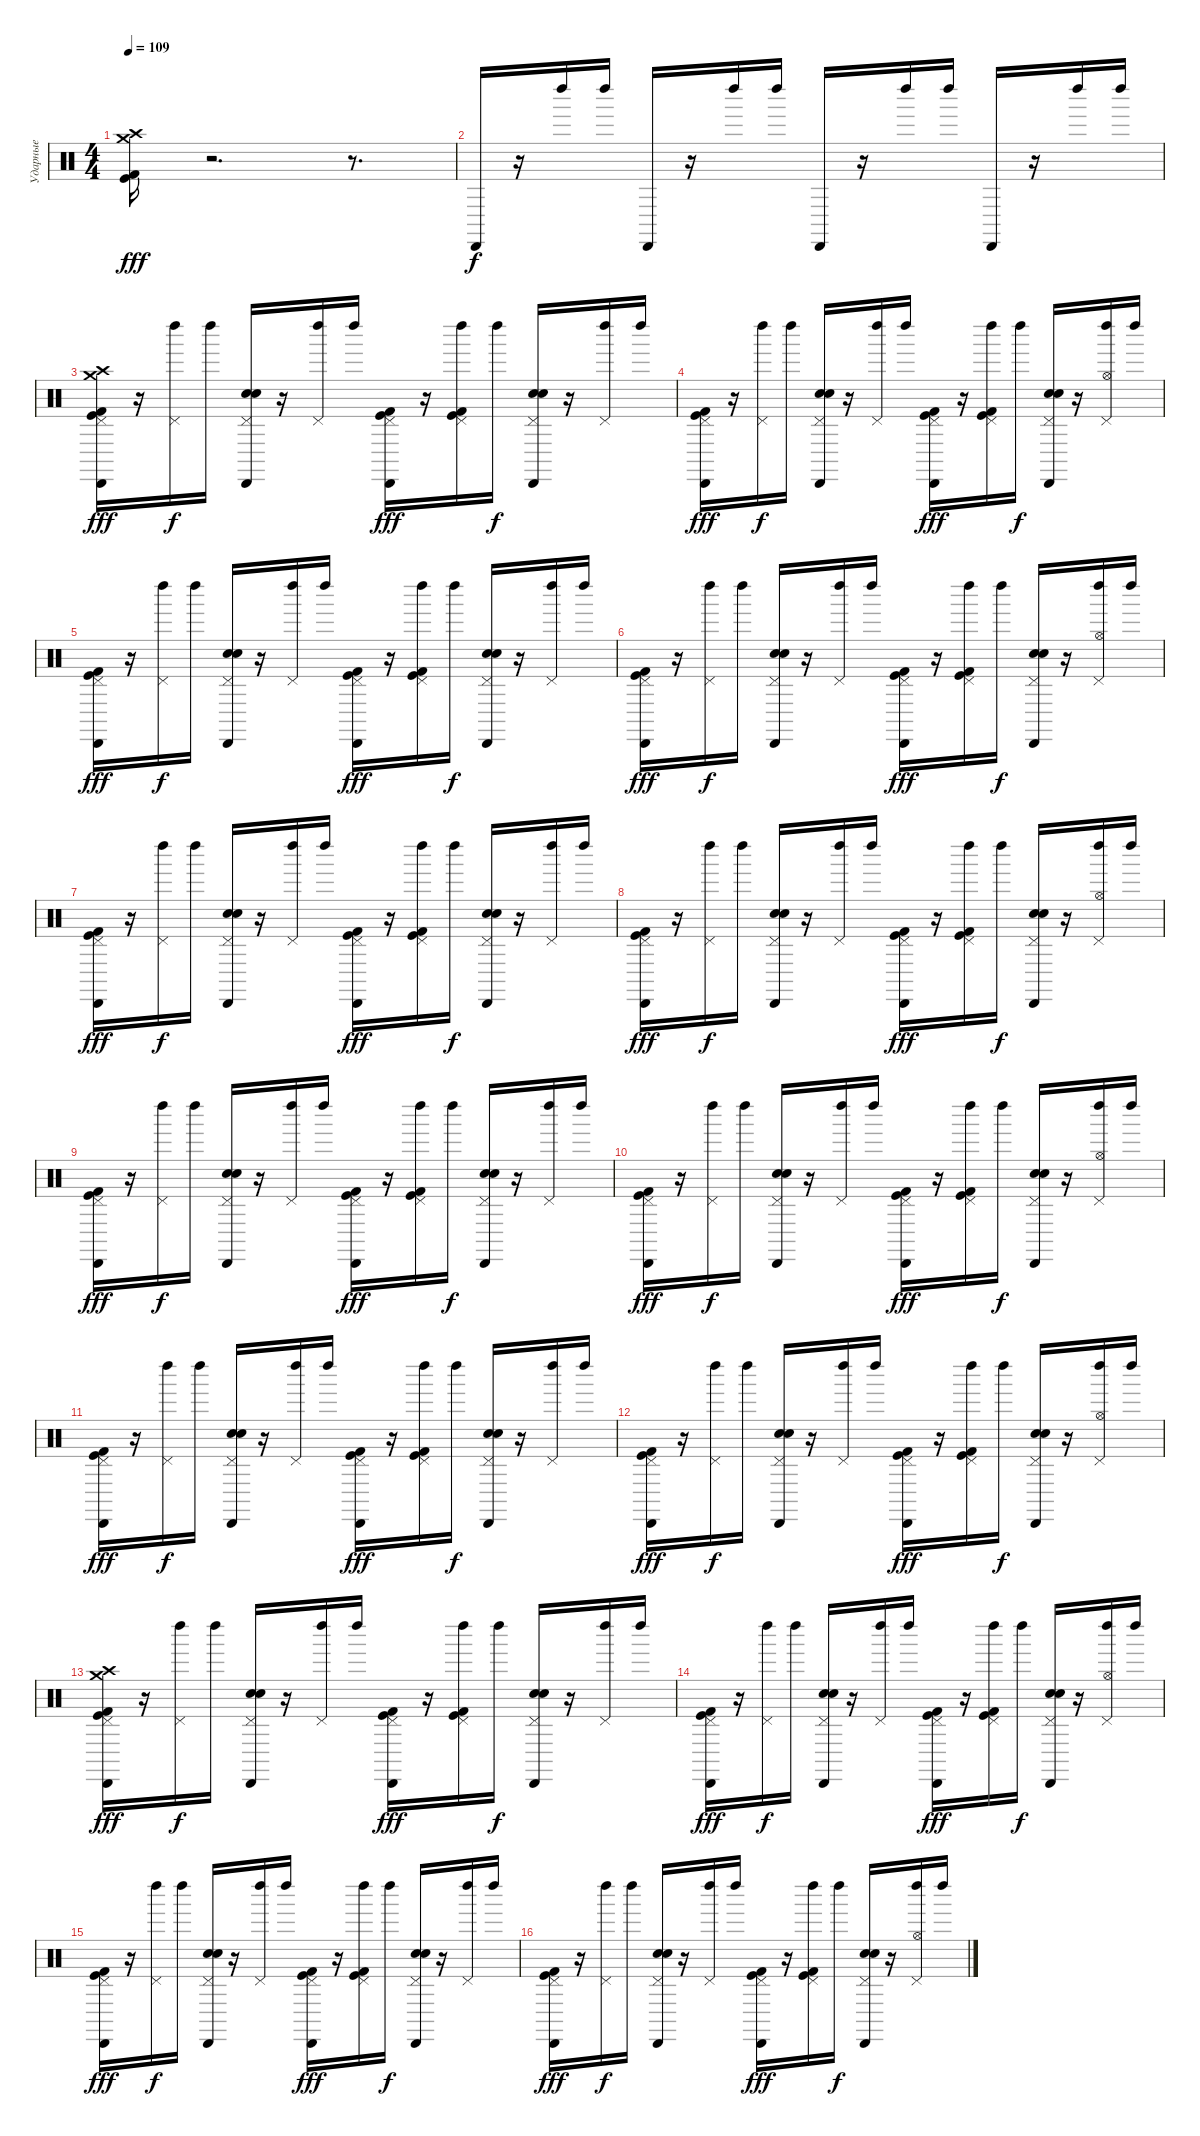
\track ("Ударные" "Ударные") {instrument percussion}
\staff {score}
\articulation defaults
\ts (4 4)
\tempo 109
\clef neutral
\ks c
("Kick (hit) 2" "Kick (hit)" "Crash medium (hit)" "Crash high (hit)").16{dy fff} r.2{d} r.8{d} |
"Cabasa (hit)".16{dy f} r.16 "Left Maraca (hit)".16 "Left Maraca (hit)".16 "Cabasa (hit)".16 r.16 "Left Maraca (hit)".16 "Left Maraca (hit)".16 "Cabasa (hit)".16 r.16 "Left Maraca (hit)".16 "Left Maraca (hit)".16 "Cabasa (hit)".16 r.16 "Left Maraca (hit)".16 "Left Maraca (hit)".16 |
("Cabasa (hit)" "Kick (hit) 2" "Kick (hit)" "Pedal Hi-Hat (hit)" "Crash high (hit)" "Crash medium (hit)").16{dy fff} r.16 ("Left Maraca (hit)" "Pedal Hi-Hat (hit)").16{dy f} "Left Maraca (hit)".16 ("Cabasa (hit)" "Snare (hit) 2" "Electric Snare (hit)" "Pedal Hi-Hat (hit)").16 r.16 ("Left Maraca (hit)" "Pedal Hi-Hat (hit)").16 "Left Maraca (hit)".16 ("Cabasa (hit)" "Kick (hit)" "Kick (hit) 2" "Pedal Hi-Hat (hit)").16{dy fff} r.16 ("Left Maraca (hit)" "Kick (hit)" "Kick (hit) 2" "Pedal Hi-Hat (hit)").16 "Left Maraca (hit)".16{dy f} ("Cabasa (hit)" "Snare (hit) 2" "Electric Snare (hit)" "Pedal Hi-Hat (hit)").16 r.16 ("Left Maraca (hit)" "Pedal Hi-Hat (hit)").16 "Left Maraca (hit)".16 |
("Cabasa (hit)" "Kick (hit)" "Kick (hit) 2" "Pedal Hi-Hat (hit)").16{dy fff} r.16 ("Left Maraca (hit)" "Pedal Hi-Hat (hit)").16{dy f} "Left Maraca (hit)".16 ("Cabasa (hit)" "Snare (hit) 2" "Electric Snare (hit)" "Pedal Hi-Hat (hit)").16 r.16 ("Left Maraca (hit)" "Pedal Hi-Hat (hit)").16 "Left Maraca (hit)".16 ("Cabasa (hit)" "Kick (hit)" "Kick (hit) 2" "Pedal Hi-Hat (hit)").16{dy fff} r.16 ("Left Maraca (hit)" "Kick (hit)" "Kick (hit) 2" "Pedal Hi-Hat (hit)").16 "Left Maraca (hit)".16{dy f} ("Cabasa (hit)" "Snare (hit) 2" "Electric Snare (hit)" "Pedal Hi-Hat (hit)").16 r.16 ("Left Maraca (hit)" "Pedal Hi-Hat (hit)" "Hi-Hat (open)").16 "Left Maraca (hit)".16 |
("Cabasa (hit)" "Kick (hit)" "Kick (hit) 2" "Pedal Hi-Hat (hit)").16{dy fff} r.16 ("Left Maraca (hit)" "Pedal Hi-Hat (hit)").16{dy f} "Left Maraca (hit)".16 ("Cabasa (hit)" "Snare (hit) 2" "Electric Snare (hit)" "Pedal Hi-Hat (hit)").16 r.16 ("Left Maraca (hit)" "Pedal Hi-Hat (hit)").16 "Left Maraca (hit)".16 ("Cabasa (hit)" "Kick (hit)" "Kick (hit) 2" "Pedal Hi-Hat (hit)").16{dy fff} r.16 ("Left Maraca (hit)" "Kick (hit) 2" "Kick (hit)" "Pedal Hi-Hat (hit)").16 "Left Maraca (hit)".16{dy f} ("Cabasa (hit)" "Snare (hit) 2" "Electric Snare (hit)" "Pedal Hi-Hat (hit)").16 r.16 ("Left Maraca (hit)" "Pedal Hi-Hat (hit)").16 "Left Maraca (hit)".16 |
("Cabasa (hit)" "Kick (hit) 2" "Kick (hit)" "Pedal Hi-Hat (hit)").16{dy fff} r.16 ("Left Maraca (hit)" "Pedal Hi-Hat (hit)").16{dy f} "Left Maraca (hit)".16 ("Cabasa (hit)" "Electric Snare (hit)" "Snare (hit) 2" "Pedal Hi-Hat (hit)").16 r.16 ("Left Maraca (hit)" "Pedal Hi-Hat (hit)").16 "Left Maraca (hit)".16 ("Cabasa (hit)" "Kick (hit)" "Kick (hit) 2" "Pedal Hi-Hat (hit)").16{dy fff} r.16 ("Left Maraca (hit)" "Kick (hit) 2" "Kick (hit)" "Pedal Hi-Hat (hit)").16 "Left Maraca (hit)".16{dy f} ("Cabasa (hit)" "Snare (hit) 2" "Electric Snare (hit)" "Pedal Hi-Hat (hit)").16 r.16 ("Left Maraca (hit)" "Pedal Hi-Hat (hit)" "Hi-Hat (open)").16 "Left Maraca (hit)".16 |
("Cabasa (hit)" "Kick (hit)" "Kick (hit) 2" "Pedal Hi-Hat (hit)").16{dy fff} r.16 ("Left Maraca (hit)" "Pedal Hi-Hat (hit)").16{dy f} "Left Maraca (hit)".16 ("Cabasa (hit)" "Snare (hit) 2" "Electric Snare (hit)" "Pedal Hi-Hat (hit)").16 r.16 ("Left Maraca (hit)" "Pedal Hi-Hat (hit)").16 "Left Maraca (hit)".16 ("Cabasa (hit)" "Kick (hit)" "Kick (hit) 2" "Pedal Hi-Hat (hit)").16{dy fff} r.16 ("Left Maraca (hit)" "Kick (hit) 2" "Kick (hit)" "Pedal Hi-Hat (hit)").16 "Left Maraca (hit)".16{dy f} ("Cabasa (hit)" "Electric Snare (hit)" "Snare (hit) 2" "Pedal Hi-Hat (hit)").16 r.16 ("Left Maraca (hit)" "Pedal Hi-Hat (hit)").16 "Left Maraca (hit)".16 |
("Cabasa (hit)" "Kick (hit) 2" "Kick (hit)" "Pedal Hi-Hat (hit)").16{dy fff} r.16 ("Left Maraca (hit)" "Pedal Hi-Hat (hit)").16{dy f} "Left Maraca (hit)".16 ("Cabasa (hit)" "Snare (hit) 2" "Electric Snare (hit)" "Pedal Hi-Hat (hit)").16 r.16 ("Left Maraca (hit)" "Pedal Hi-Hat (hit)").16 "Left Maraca (hit)".16 ("Cabasa (hit)" "Kick (hit)" "Kick (hit) 2" "Pedal Hi-Hat (hit)").16{dy fff} r.16 ("Left Maraca (hit)" "Kick (hit) 2" "Kick (hit)" "Pedal Hi-Hat (hit)").16 "Left Maraca (hit)".16{dy f} ("Cabasa (hit)" "Snare (hit) 2" "Electric Snare (hit)" "Pedal Hi-Hat (hit)").16 r.16 ("Left Maraca (hit)" "Pedal Hi-Hat (hit)" "Hi-Hat (open)").16 "Left Maraca (hit)".16 |
("Cabasa (hit)" "Kick (hit) 2" "Kick (hit)" "Pedal Hi-Hat (hit)").16{dy fff} r.16 ("Left Maraca (hit)" "Pedal Hi-Hat (hit)").16{dy f} "Left Maraca (hit)".16 ("Cabasa (hit)" "Electric Snare (hit)" "Snare (hit) 2" "Pedal Hi-Hat (hit)").16 r.16 ("Left Maraca (hit)" "Pedal Hi-Hat (hit)").16 "Left Maraca (hit)".16 ("Cabasa (hit)" "Kick (hit) 2" "Kick (hit)" "Pedal Hi-Hat (hit)").16{dy fff} r.16 ("Left Maraca (hit)" "Kick (hit) 2" "Kick (hit)" "Pedal Hi-Hat (hit)").16 "Left Maraca (hit)".16{dy f} ("Cabasa (hit)" "Snare (hit) 2" "Electric Snare (hit)" "Pedal Hi-Hat (hit)").16 r.16 ("Left Maraca (hit)" "Pedal Hi-Hat (hit)").16 "Left Maraca (hit)".16 |
("Cabasa (hit)" "Kick (hit) 2" "Kick (hit)" "Pedal Hi-Hat (hit)").16{dy fff} r.16 ("Left Maraca (hit)" "Pedal Hi-Hat (hit)").16{dy f} "Left Maraca (hit)".16 ("Cabasa (hit)" "Snare (hit) 2" "Electric Snare (hit)" "Pedal Hi-Hat (hit)").16 r.16 ("Left Maraca (hit)" "Pedal Hi-Hat (hit)").16 "Left Maraca (hit)".16 ("Cabasa (hit)" "Kick (hit) 2" "Kick (hit)" "Pedal Hi-Hat (hit)").16{dy fff} r.16 ("Left Maraca (hit)" "Kick (hit)" "Kick (hit) 2" "Pedal Hi-Hat (hit)").16 "Left Maraca (hit)".16{dy f} ("Cabasa (hit)" "Electric Snare (hit)" "Snare (hit) 2" "Pedal Hi-Hat (hit)").16 r.16 ("Left Maraca (hit)" "Pedal Hi-Hat (hit)" "Hi-Hat (open)").16 "Left Maraca (hit)".16 |
("Cabasa (hit)" "Kick (hit)" "Kick (hit) 2" "Pedal Hi-Hat (hit)").16{dy fff} r.16 ("Left Maraca (hit)" "Pedal Hi-Hat (hit)").16{dy f} "Left Maraca (hit)".16 ("Cabasa (hit)" "Snare (hit) 2" "Electric Snare (hit)" "Pedal Hi-Hat (hit)").16 r.16 ("Left Maraca (hit)" "Pedal Hi-Hat (hit)").16 "Left Maraca (hit)".16 ("Cabasa (hit)" "Kick (hit) 2" "Kick (hit)" "Pedal Hi-Hat (hit)").16{dy fff} r.16 ("Left Maraca (hit)" "Kick (hit) 2" "Kick (hit)" "Pedal Hi-Hat (hit)").16 "Left Maraca (hit)".16{dy f} ("Cabasa (hit)" "Snare (hit) 2" "Electric Snare (hit)" "Pedal Hi-Hat (hit)").16 r.16 ("Left Maraca (hit)" "Pedal Hi-Hat (hit)").16 "Left Maraca (hit)".16 |
("Cabasa (hit)" "Kick (hit) 2" "Kick (hit)" "Pedal Hi-Hat (hit)").16{dy fff} r.16 ("Left Maraca (hit)" "Pedal Hi-Hat (hit)").16{dy f} "Left Maraca (hit)".16 ("Cabasa (hit)" "Snare (hit) 2" "Electric Snare (hit)" "Pedal Hi-Hat (hit)").16 r.16 ("Left Maraca (hit)" "Pedal Hi-Hat (hit)").16 "Left Maraca (hit)".16 ("Cabasa (hit)" "Kick (hit) 2" "Kick (hit)" "Pedal Hi-Hat (hit)").16{dy fff} r.16 ("Left Maraca (hit)" "Kick (hit)" "Kick (hit) 2" "Pedal Hi-Hat (hit)").16 "Left Maraca (hit)".16{dy f} ("Cabasa (hit)" "Electric Snare (hit)" "Snare (hit) 2" "Pedal Hi-Hat (hit)").16 r.16 ("Left Maraca (hit)" "Pedal Hi-Hat (hit)" "Hi-Hat (open)").16 "Left Maraca (hit)".16 |
("Cabasa (hit)" "Kick (hit)" "Kick (hit) 2" "Pedal Hi-Hat (hit)" "Crash medium (hit)" "Crash high (hit)").16{dy fff} r.16 ("Left Maraca (hit)" "Pedal Hi-Hat (hit)").16{dy f} "Left Maraca (hit)".16 ("Cabasa (hit)" "Electric Snare (hit)" "Snare (hit) 2" "Pedal Hi-Hat (hit)").16 r.16 ("Left Maraca (hit)" "Pedal Hi-Hat (hit)").16 "Left Maraca (hit)".16 ("Cabasa (hit)" "Kick (hit)" "Kick (hit) 2" "Pedal Hi-Hat (hit)").16{dy fff} r.16 ("Left Maraca (hit)" "Kick (hit)" "Kick (hit) 2" "Pedal Hi-Hat (hit)").16 "Left Maraca (hit)".16{dy f} ("Cabasa (hit)" "Snare (hit) 2" "Electric Snare (hit)" "Pedal Hi-Hat (hit)").16 r.16 ("Left Maraca (hit)" "Pedal Hi-Hat (hit)").16 "Left Maraca (hit)".16 |
("Cabasa (hit)" "Kick (hit) 2" "Kick (hit)" "Pedal Hi-Hat (hit)").16{dy fff} r.16 ("Left Maraca (hit)" "Pedal Hi-Hat (hit)").16{dy f} "Left Maraca (hit)".16 ("Cabasa (hit)" "Electric Snare (hit)" "Snare (hit) 2" "Pedal Hi-Hat (hit)").16 r.16 ("Left Maraca (hit)" "Pedal Hi-Hat (hit)").16 "Left Maraca (hit)".16 ("Cabasa (hit)" "Kick (hit) 2" "Kick (hit)" "Pedal Hi-Hat (hit)").16{dy fff} r.16 ("Left Maraca (hit)" "Kick (hit) 2" "Kick (hit)" "Pedal Hi-Hat (hit)").16 "Left Maraca (hit)".16{dy f} ("Cabasa (hit)" "Snare (hit) 2" "Electric Snare (hit)" "Pedal Hi-Hat (hit)").16 r.16 ("Left Maraca (hit)" "Pedal Hi-Hat (hit)" "Hi-Hat (open)").16 "Left Maraca (hit)".16 |
("Cabasa (hit)" "Kick (hit)" "Kick (hit) 2" "Pedal Hi-Hat (hit)").16{dy fff} r.16 ("Left Maraca (hit)" "Pedal Hi-Hat (hit)").16{dy f} "Left Maraca (hit)".16 ("Cabasa (hit)" "Electric Snare (hit)" "Snare (hit) 2" "Pedal Hi-Hat (hit)").16 r.16 ("Left Maraca (hit)" "Pedal Hi-Hat (hit)").16 "Left Maraca (hit)".16 ("Cabasa (hit)" "Kick (hit)" "Kick (hit) 2" "Pedal Hi-Hat (hit)").16{dy fff} r.16 ("Left Maraca (hit)" "Kick (hit) 2" "Kick (hit)" "Pedal Hi-Hat (hit)").16 "Left Maraca (hit)".16{dy f} ("Cabasa (hit)" "Snare (hit) 2" "Electric Snare (hit)" "Pedal Hi-Hat (hit)").16 r.16 ("Left Maraca (hit)" "Pedal Hi-Hat (hit)").16 "Left Maraca (hit)".16 |
("Cabasa (hit)" "Kick (hit)" "Kick (hit) 2" "Pedal Hi-Hat (hit)").16{dy fff} r.16 ("Left Maraca (hit)" "Pedal Hi-Hat (hit)").16{dy f} "Left Maraca (hit)".16 ("Cabasa (hit)" "Snare (hit) 2" "Electric Snare (hit)" "Pedal Hi-Hat (hit)").16 r.16 ("Left Maraca (hit)" "Pedal Hi-Hat (hit)").16 "Left Maraca (hit)".16 ("Cabasa (hit)" "Kick (hit) 2" "Kick (hit)" "Pedal Hi-Hat (hit)").16{dy fff} r.16 ("Left Maraca (hit)" "Kick (hit) 2" "Kick (hit)" "Pedal Hi-Hat (hit)").16 "Left Maraca (hit)".16{dy f} ("Cabasa (hit)" "Snare (hit) 2" "Electric Snare (hit)" "Pedal Hi-Hat (hit)").16 r.16 ("Left Maraca (hit)" "Pedal Hi-Hat (hit)" "Hi-Hat (open)").16 "Left Maraca (hit)".16
